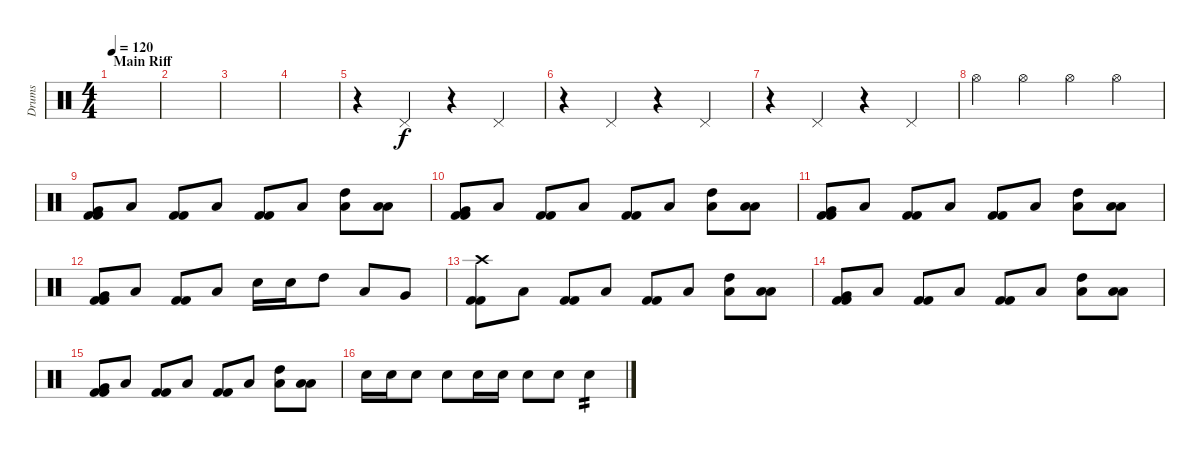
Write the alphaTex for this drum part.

\track ("Drums" "Drums") {instrument percussion}
\staff {score}
\articulation defaults
\ts (4 4)
\section ("" "Main Riff")
\tempo 120
\clef neutral
\ks c
|
|
|
|
r.4 "Pedal Hi-Hat (hit)".4 r.4 "Pedal Hi-Hat (hit)".4 |
r.4 "Pedal Hi-Hat (hit)".4 r.4 "Pedal Hi-Hat (hit)".4 |
r.4 "Pedal Hi-Hat (hit)".4 r.4 "Pedal Hi-Hat (hit)".4 |
"Hi-Hat (open)".4 "Hi-Hat (open)".4 "Hi-Hat (open)".4 "Hi-Hat (open)".4 |
("Very Low Tom (hit)" "Kick (hit) 2" "Kick (hit) 2").8 "Low Tom (hit)".8 ("Kick (hit) 2" "Kick (hit) 2").8 "Low Tom (hit)".8 ("Kick (hit) 2" "Kick (hit) 2").8 "Low Tom (hit)".8 ("High Tom (hit)" "Low Floor Tom (hit)").8 ("Low Tom (hit)" "Low Floor Tom (hit)").8 |
("Very Low Tom (hit)" "Kick (hit) 2" "Kick (hit) 2").8 "Low Tom (hit)".8 ("Kick (hit) 2" "Kick (hit) 2").8 "Low Tom (hit)".8 ("Kick (hit) 2" "Kick (hit) 2").8 "Low Tom (hit)".8 ("High Tom (hit)" "Low Floor Tom (hit)").8 ("Low Tom (hit)" "Low Floor Tom (hit)").8 |
("Very Low Tom (hit)" "Kick (hit) 2" "Kick (hit) 2").8 "Low Tom (hit)".8 ("Kick (hit) 2" "Kick (hit) 2").8 "Low Tom (hit)".8 ("Kick (hit) 2" "Kick (hit) 2").8 "Low Tom (hit)".8 ("High Tom (hit)" "Low Floor Tom (hit)").8 ("Low Tom (hit)" "Low Floor Tom (hit)").8 |
("Very Low Tom (hit)" "Kick (hit) 2" "Kick (hit) 2").8 "Low Tom (hit)".8 ("Kick (hit) 2" "Kick (hit) 2").8 "Low Tom (hit)".8 "Electric Snare (hit)".16 "Electric Snare (hit)".16 "High Tom (hit)".8 "Low Tom (hit)".8 "Very Low Tom (hit)".8 |
("Crash high (hit)" "Kick (hit) 2" "Kick (hit) 2").8 "Low Tom (hit)".8 ("Kick (hit) 2" "Kick (hit) 2").8 "Low Tom (hit)".8 ("Kick (hit) 2" "Kick (hit) 2").8 "Low Tom (hit)".8 ("High Tom (hit)" "Low Floor Tom (hit)").8 ("Low Tom (hit)" "Low Floor Tom (hit)").8 |
("Very Low Tom (hit)" "Kick (hit) 2" "Kick (hit) 2").8 "Low Tom (hit)".8 ("Kick (hit) 2" "Kick (hit) 2").8 "Low Tom (hit)".8 ("Kick (hit) 2" "Kick (hit) 2").8 "Low Tom (hit)".8 ("High Tom (hit)" "Low Floor Tom (hit)").8 ("Low Tom (hit)" "Low Floor Tom (hit)").8 |
("Very Low Tom (hit)" "Kick (hit) 2" "Kick (hit) 2").8 "Low Tom (hit)".8 ("Kick (hit) 2" "Kick (hit) 2").8 "Low Tom (hit)".8 ("Kick (hit) 2" "Kick (hit) 2").8 "Low Tom (hit)".8 ("High Tom (hit)" "Low Floor Tom (hit)").8 ("Low Tom (hit)" "Low Floor Tom (hit)").8 |
"Electric Snare (hit)".16 "Electric Snare (hit)".16 "Electric Snare (hit)".8 "Electric Snare (hit)".8 "Electric Snare (hit)".16 "Electric Snare (hit)".16 "Electric Snare (hit)".8 "Electric Snare (hit)".8 "Electric Snare (hit)".4{tp 2}
